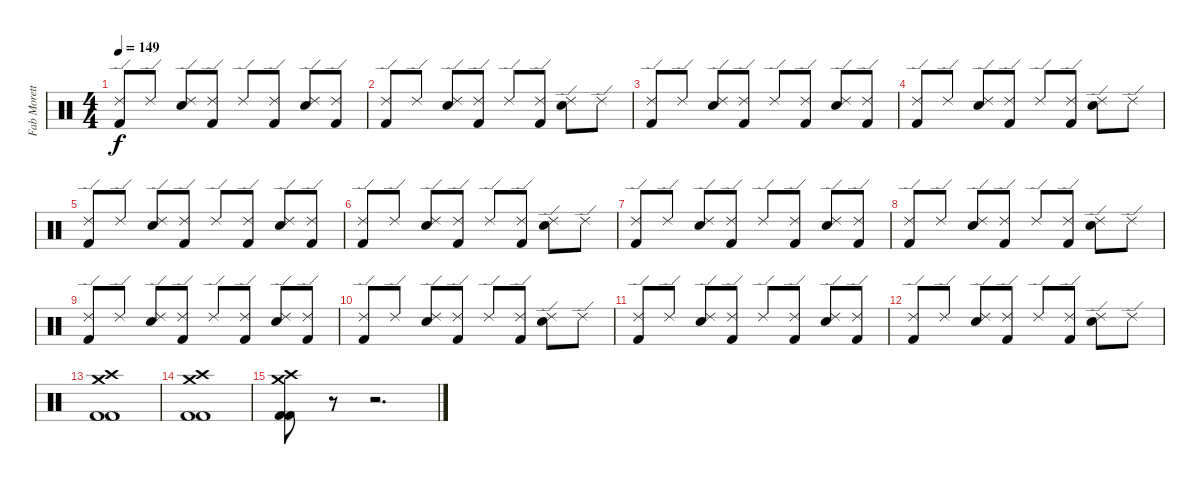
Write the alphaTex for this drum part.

\track ("Fab Moretti" "Fab Morett") {instrument percussion}
\staff {score}
\articulation defaults
\ts (4 4)
\tempo 149
\clef neutral
\ks c
("Ride (edge) 2" "Kick (hit) 2").8{dy f} "Ride (edge) 2".8 ("Ride (edge) 2" "Electric Snare (hit)").8 ("Ride (edge) 2" "Kick (hit) 2").8 "Ride (edge) 2".8 ("Ride (edge) 2" "Kick (hit) 2").8 ("Ride (edge) 2" "Electric Snare (hit)").8 ("Ride (edge) 2" "Kick (hit) 2").8 |
("Ride (edge) 2" "Kick (hit) 2").8 "Ride (edge) 2".8 ("Ride (edge) 2" "Electric Snare (hit)").8 ("Ride (edge) 2" "Kick (hit) 2").8 "Ride (edge) 2".8 ("Ride (edge) 2" "Kick (hit) 2").8 ("Ride (edge) 2" "Electric Snare (hit)").8 "Ride (edge) 2".8 |
("Ride (edge) 2" "Kick (hit) 2").8 "Ride (edge) 2".8 ("Ride (edge) 2" "Electric Snare (hit)").8 ("Ride (edge) 2" "Kick (hit) 2").8 "Ride (edge) 2".8 ("Ride (edge) 2" "Kick (hit) 2").8 ("Ride (edge) 2" "Electric Snare (hit)").8 ("Ride (edge) 2" "Kick (hit) 2").8 |
("Ride (edge) 2" "Kick (hit) 2").8 "Ride (edge) 2".8 ("Ride (edge) 2" "Electric Snare (hit)").8 ("Ride (edge) 2" "Kick (hit) 2").8 "Ride (edge) 2".8 ("Ride (edge) 2" "Kick (hit) 2").8 ("Ride (edge) 2" "Electric Snare (hit)").8 "Ride (edge) 2".8 |
("Ride (edge) 2" "Kick (hit) 2").8 "Ride (edge) 2".8 ("Ride (edge) 2" "Electric Snare (hit)").8 ("Ride (edge) 2" "Kick (hit) 2").8 "Ride (edge) 2".8 ("Ride (edge) 2" "Kick (hit) 2").8 ("Ride (edge) 2" "Electric Snare (hit)").8 ("Ride (edge) 2" "Kick (hit) 2").8 |
("Ride (edge) 2" "Kick (hit) 2").8 "Ride (edge) 2".8 ("Ride (edge) 2" "Electric Snare (hit)").8 ("Ride (edge) 2" "Kick (hit) 2").8 "Ride (edge) 2".8 ("Ride (edge) 2" "Kick (hit) 2").8 ("Ride (edge) 2" "Electric Snare (hit)").8 "Ride (edge) 2".8 |
("Ride (edge) 2" "Kick (hit) 2").8 "Ride (edge) 2".8 ("Ride (edge) 2" "Electric Snare (hit)").8 ("Ride (edge) 2" "Kick (hit) 2").8 "Ride (edge) 2".8 ("Ride (edge) 2" "Kick (hit) 2").8 ("Ride (edge) 2" "Electric Snare (hit)").8 ("Ride (edge) 2" "Kick (hit) 2").8 |
("Ride (edge) 2" "Kick (hit) 2").8 "Ride (edge) 2".8 ("Ride (edge) 2" "Electric Snare (hit)").8 ("Ride (edge) 2" "Kick (hit) 2").8 "Ride (edge) 2".8 ("Ride (edge) 2" "Kick (hit) 2").8 ("Ride (edge) 2" "Electric Snare (hit)").8 "Ride (edge) 2".8 |
("Ride (edge) 2" "Kick (hit) 2").8 "Ride (edge) 2".8 ("Ride (edge) 2" "Electric Snare (hit)").8 ("Ride (edge) 2" "Kick (hit) 2").8 "Ride (edge) 2".8 ("Ride (edge) 2" "Kick (hit) 2").8 ("Ride (edge) 2" "Electric Snare (hit)").8 ("Ride (edge) 2" "Kick (hit) 2").8 |
("Ride (edge) 2" "Kick (hit) 2").8 "Ride (edge) 2".8 ("Ride (edge) 2" "Electric Snare (hit)").8 ("Ride (edge) 2" "Kick (hit) 2").8 "Ride (edge) 2".8 ("Ride (edge) 2" "Kick (hit) 2").8 ("Ride (edge) 2" "Electric Snare (hit)").8 "Ride (edge) 2".8 |
("Ride (edge) 2" "Kick (hit) 2").8 "Ride (edge) 2".8 ("Ride (edge) 2" "Electric Snare (hit)").8 ("Ride (edge) 2" "Kick (hit) 2").8 "Ride (edge) 2".8 ("Ride (edge) 2" "Kick (hit) 2").8 ("Ride (edge) 2" "Electric Snare (hit)").8 ("Ride (edge) 2" "Kick (hit) 2").8 |
("Ride (edge) 2" "Kick (hit) 2").8 "Ride (edge) 2".8 ("Ride (edge) 2" "Electric Snare (hit)").8 ("Ride (edge) 2" "Kick (hit) 2").8 "Ride (edge) 2".8 ("Ride (edge) 2" "Kick (hit) 2").8 ("Ride (edge) 2" "Electric Snare (hit)").8 "Ride (edge) 2".8 |
("Crash high (hit)" "Crash medium (hit)" "Kick (hit) 2" "Kick (hit) 2").1 |
("Crash high (hit)" "Crash medium (hit)" "Kick (hit) 2" "Kick (hit) 2").1 |
("Crash high (hit)" "Crash medium (hit)" "Kick (hit) 2" "Kick (hit) 2").8 r.8 r.2{d}
